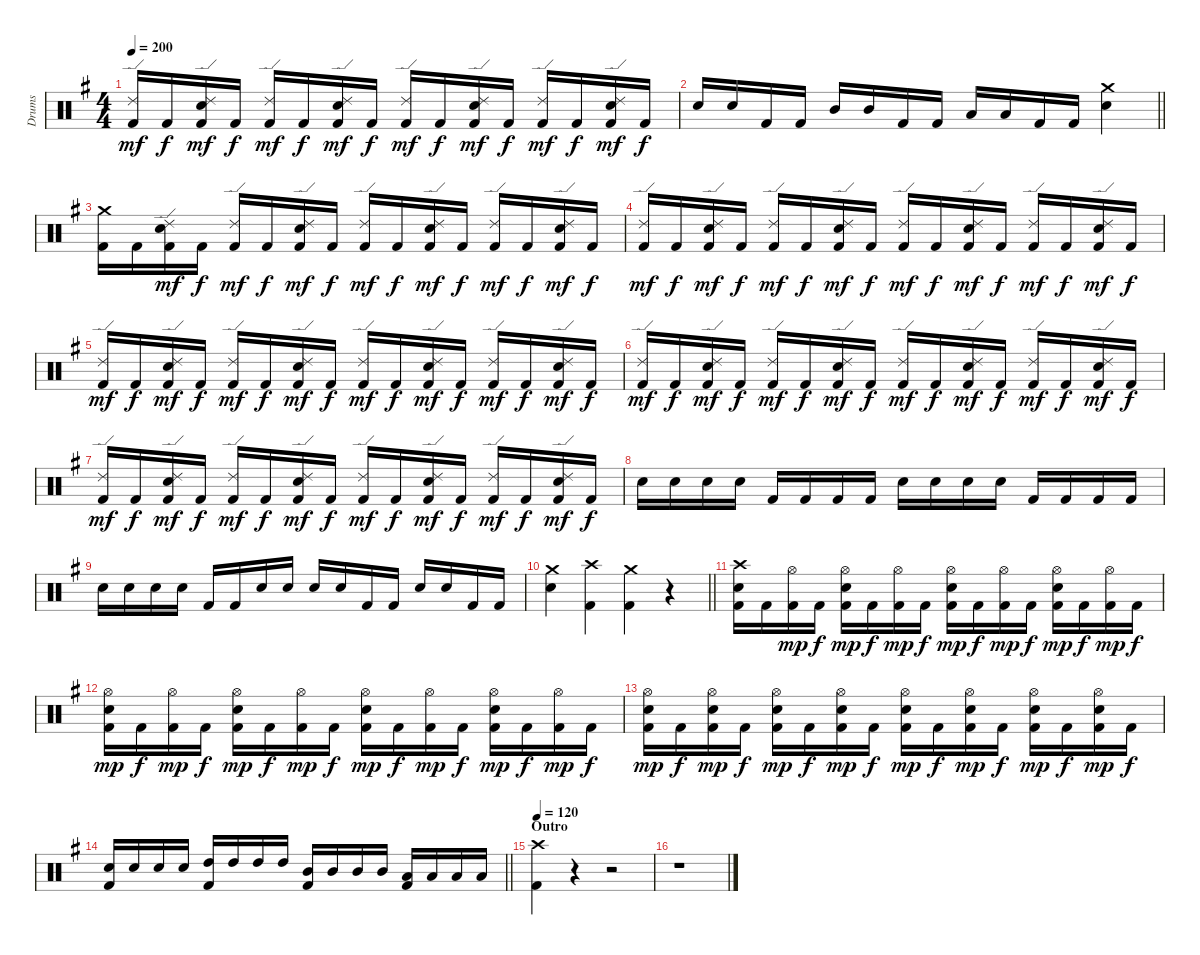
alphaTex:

\track ("Drums" "Drums") {instrument percussion}
\staff {score}
\articulation defaults
\ts (4 4)
\tempo 200
\clef neutral
\ks g
("Ride (edge) 2" "Kick (hit) 2").16{dy mf} "Kick (hit) 2".16{dy f} ("Ride (edge) 2" "Snare (hit) 2" "Kick (hit) 2").16{dy mf} "Kick (hit) 2".16{dy f} ("Ride (edge) 2" "Kick (hit) 2").16{dy mf} "Kick (hit) 2".16{dy f} ("Ride (edge) 2" "Snare (hit) 2" "Kick (hit) 2").16{dy mf} "Kick (hit) 2".16{dy f} ("Ride (edge) 2" "Kick (hit) 2").16{dy mf} "Kick (hit) 2".16{dy f} ("Ride (edge) 2" "Snare (hit) 2" "Kick (hit) 2").16{dy mf} "Kick (hit) 2".16{dy f} ("Ride (edge) 2" "Kick (hit) 2").16{dy mf} "Kick (hit) 2".16{dy f} ("Ride (edge) 2" "Snare (hit) 2" "Kick (hit) 2").16{dy mf} "Kick (hit) 2".16{dy f} |
\barLineRight lightlight "Snare (hit) 2".16 "Snare (hit) 2".16 "Kick (hit) 2".16 "Kick (hit) 2".16 "Mid Tom (hit)".16 "Mid Tom (hit)".16 "Kick (hit) 2".16 "Kick (hit) 2".16 "Low Tom (hit)".16 "Low Tom (hit)".16 "Kick (hit) 2".16 "Kick (hit) 2".16
("Crash medium (hit)" "Snare (hit) 2").4 |
\section ("" "")
("Crash medium (hit)" "Kick (hit) 2").16 "Kick (hit) 2".16 ("Ride (edge) 2" "Snare (hit) 2" "Kick (hit) 2").16{dy mf} "Kick (hit) 2".16{dy f} ("Ride (edge) 2" "Kick (hit) 2").16{dy mf} "Kick (hit) 2".16{dy f} ("Ride (edge) 2" "Snare (hit) 2" "Kick (hit) 2").16{dy mf} "Kick (hit) 2".16{dy f} ("Ride (edge) 2" "Kick (hit) 2").16{dy mf} "Kick (hit) 2".16{dy f} ("Ride (edge) 2" "Snare (hit) 2" "Kick (hit) 2").16{dy mf} "Kick (hit) 2".16{dy f} ("Ride (edge) 2" "Kick (hit) 2").16{dy mf} "Kick (hit) 2".16{dy f} ("Ride (edge) 2" "Snare (hit) 2" "Kick (hit) 2").16{dy mf} "Kick (hit) 2".16{dy f} |
("Ride (edge) 2" "Kick (hit) 2").16{dy mf} "Kick (hit) 2".16{dy f} ("Ride (edge) 2" "Snare (hit) 2" "Kick (hit) 2").16{dy mf} "Kick (hit) 2".16{dy f} ("Ride (edge) 2" "Kick (hit) 2").16{dy mf} "Kick (hit) 2".16{dy f} ("Ride (edge) 2" "Snare (hit) 2" "Kick (hit) 2").16{dy mf} "Kick (hit) 2".16{dy f} ("Ride (edge) 2" "Kick (hit) 2").16{dy mf} "Kick (hit) 2".16{dy f} ("Ride (edge) 2" "Snare (hit) 2" "Kick (hit) 2").16{dy mf} "Kick (hit) 2".16{dy f} ("Ride (edge) 2" "Kick (hit) 2").16{dy mf} "Kick (hit) 2".16{dy f} ("Ride (edge) 2" "Snare (hit) 2" "Kick (hit) 2").16{dy mf} "Kick (hit) 2".16{dy f} |
("Ride (edge) 2" "Kick (hit) 2").16{dy mf} "Kick (hit) 2".16{dy f} ("Ride (edge) 2" "Snare (hit) 2" "Kick (hit) 2").16{dy mf} "Kick (hit) 2".16{dy f} ("Ride (edge) 2" "Kick (hit) 2").16{dy mf} "Kick (hit) 2".16{dy f} ("Ride (edge) 2" "Snare (hit) 2" "Kick (hit) 2").16{dy mf} "Kick (hit) 2".16{dy f} ("Ride (edge) 2" "Kick (hit) 2").16{dy mf} "Kick (hit) 2".16{dy f} ("Ride (edge) 2" "Snare (hit) 2" "Kick (hit) 2").16{dy mf} "Kick (hit) 2".16{dy f} ("Ride (edge) 2" "Kick (hit) 2").16{dy mf} "Kick (hit) 2".16{dy f} ("Ride (edge) 2" "Snare (hit) 2" "Kick (hit) 2").16{dy mf} "Kick (hit) 2".16{dy f} |
("Ride (edge) 2" "Kick (hit) 2").16{dy mf} "Kick (hit) 2".16{dy f} ("Ride (edge) 2" "Snare (hit) 2" "Kick (hit) 2").16{dy mf} "Kick (hit) 2".16{dy f} ("Ride (edge) 2" "Kick (hit) 2").16{dy mf} "Kick (hit) 2".16{dy f} ("Ride (edge) 2" "Snare (hit) 2" "Kick (hit) 2").16{dy mf} "Kick (hit) 2".16{dy f} ("Ride (edge) 2" "Kick (hit) 2").16{dy mf} "Kick (hit) 2".16{dy f} ("Ride (edge) 2" "Snare (hit) 2" "Kick (hit) 2").16{dy mf} "Kick (hit) 2".16{dy f} ("Ride (edge) 2" "Kick (hit) 2").16{dy mf} "Kick (hit) 2".16{dy f} ("Ride (edge) 2" "Snare (hit) 2" "Kick (hit) 2").16{dy mf} "Kick (hit) 2".16{dy f} |
("Ride (edge) 2" "Kick (hit) 2").16{dy mf} "Kick (hit) 2".16{dy f} ("Ride (edge) 2" "Snare (hit) 2" "Kick (hit) 2").16{dy mf} "Kick (hit) 2".16{dy f} ("Ride (edge) 2" "Kick (hit) 2").16{dy mf} "Kick (hit) 2".16{dy f} ("Ride (edge) 2" "Snare (hit) 2" "Kick (hit) 2").16{dy mf} "Kick (hit) 2".16{dy f} ("Ride (edge) 2" "Kick (hit) 2").16{dy mf} "Kick (hit) 2".16{dy f} ("Ride (edge) 2" "Snare (hit) 2" "Kick (hit) 2").16{dy mf} "Kick (hit) 2".16{dy f} ("Ride (edge) 2" "Kick (hit) 2").16{dy mf} "Kick (hit) 2".16{dy f} ("Ride (edge) 2" "Snare (hit) 2" "Kick (hit) 2").16{dy mf} "Kick (hit) 2".16{dy f} |
"Snare (hit) 2".16 "Snare (hit) 2".16 "Snare (hit) 2".16 "Snare (hit) 2".16 "Kick (hit) 2".16 "Kick (hit) 2".16 "Kick (hit) 2".16 "Kick (hit) 2".16 "Snare (hit) 2".16 "Snare (hit) 2".16 "Snare (hit) 2".16 "Snare (hit) 2".16 "Kick (hit) 2".16 "Kick (hit) 2".16 "Kick (hit) 2".16 "Kick (hit) 2".16 |
"Snare (hit) 2".16 "Snare (hit) 2".16 "Snare (hit) 2".16 "Snare (hit) 2".16 "Kick (hit) 2".16 "Kick (hit) 2".16 "Snare (hit) 2".16 "Snare (hit) 2".16 "Snare (hit) 2".16 "Snare (hit) 2".16 "Kick (hit) 2".16 "Kick (hit) 2".16 "Snare (hit) 2".16 "Snare (hit) 2".16 "Kick (hit) 2".16 "Kick (hit) 2".16 |
\barLineRight lightlight
("Crash medium (hit)" "Snare (hit) 2").4 ("Crash high (hit)" "Kick (hit) 2").4 ("Crash medium (hit)" "Kick (hit) 2").4 r.4 |
\section ("" "")
("Crash high (hit)" "Snare (hit) 2" "Kick (hit) 2").16 "Kick (hit) 2".16 ("Hi-Hat (open)" "Kick (hit) 2").16{dy mp} "Kick (hit) 2".16{dy f} ("Hi-Hat (open)" "Snare (hit) 2" "Kick (hit) 2").16{dy mp} "Kick (hit) 2".16{dy f} ("Hi-Hat (open)" "Kick (hit) 2").16{dy mp} "Kick (hit) 2".16{dy f} ("Hi-Hat (open)" "Snare (hit) 2" "Kick (hit) 2").16{dy mp} "Kick (hit) 2".16{dy f} ("Hi-Hat (open)" "Kick (hit) 2").16{dy mp} "Kick (hit) 2".16{dy f} ("Hi-Hat (open)" "Snare (hit) 2" "Kick (hit) 2").16{dy mp} "Kick (hit) 2".16{dy f} ("Hi-Hat (open)" "Kick (hit) 2").16{dy mp} "Kick (hit) 2".16{dy f} |
("Hi-Hat (open)" "Snare (hit) 2" "Kick (hit) 2").16{dy mp} "Kick (hit) 2".16{dy f} ("Hi-Hat (open)" "Kick (hit) 2").16{dy mp} "Kick (hit) 2".16{dy f} ("Hi-Hat (open)" "Snare (hit) 2" "Kick (hit) 2").16{dy mp} "Kick (hit) 2".16{dy f} ("Hi-Hat (open)" "Kick (hit) 2").16{dy mp} "Kick (hit) 2".16{dy f} ("Hi-Hat (open)" "Snare (hit) 2" "Kick (hit) 2").16{dy mp} "Kick (hit) 2".16{dy f} ("Hi-Hat (open)" "Kick (hit) 2").16{dy mp} "Kick (hit) 2".16{dy f} ("Hi-Hat (open)" "Snare (hit) 2" "Kick (hit) 2").16{dy mp} "Kick (hit) 2".16{dy f} ("Hi-Hat (open)" "Kick (hit) 2").16{dy mp} "Kick (hit) 2".16{dy f} |
("Hi-Hat (open)" "Snare (hit) 2" "Kick (hit) 2").16{dy mp} "Kick (hit) 2".16{dy f} ("Hi-Hat (open)" "Snare (hit) 2" "Kick (hit) 2").16{dy mp} "Kick (hit) 2".16{dy f} ("Hi-Hat (open)" "Snare (hit) 2" "Kick (hit) 2").16{dy mp} "Kick (hit) 2".16{dy f} ("Hi-Hat (open)" "Snare (hit) 2" "Kick (hit) 2").16{dy mp} "Kick (hit) 2".16{dy f} ("Hi-Hat (open)" "Snare (hit) 2" "Kick (hit) 2").16{dy mp} "Kick (hit) 2".16{dy f} ("Hi-Hat (open)" "Snare (hit) 2" "Kick (hit) 2").16{dy mp} "Kick (hit) 2".16{dy f} ("Hi-Hat (open)" "Snare (hit) 2" "Kick (hit) 2").16{dy mp} "Kick (hit) 2".16{dy f} ("Hi-Hat (open)" "Snare (hit) 2" "Kick (hit) 2").16{dy mp} "Kick (hit) 2".16{dy f} |
\barLineRight lightlight
("Snare (hit) 2" "Kick (hit) 2").16 "Snare (hit) 2".16 "Snare (hit) 2".16 "Snare (hit) 2".16 ("High Tom (hit)" "Kick (hit) 2").16 "High Tom (hit)".16 "High Tom (hit)".16 "High Tom (hit)".16 ("Mid Tom (hit)" "Kick (hit) 2").16 "Mid Tom (hit)".16 "Mid Tom (hit)".16 "Mid Tom (hit)".16 ("Low Tom (hit)" "Kick (hit) 2").16 "Low Tom (hit)".16 "Low Tom (hit)".16 "Low Tom (hit)".16 |
\section ("" "Outro")
\tempo 120
("Crash high (hit)" "Kick (hit) 2").4 r.4 r.2 |
r.1
